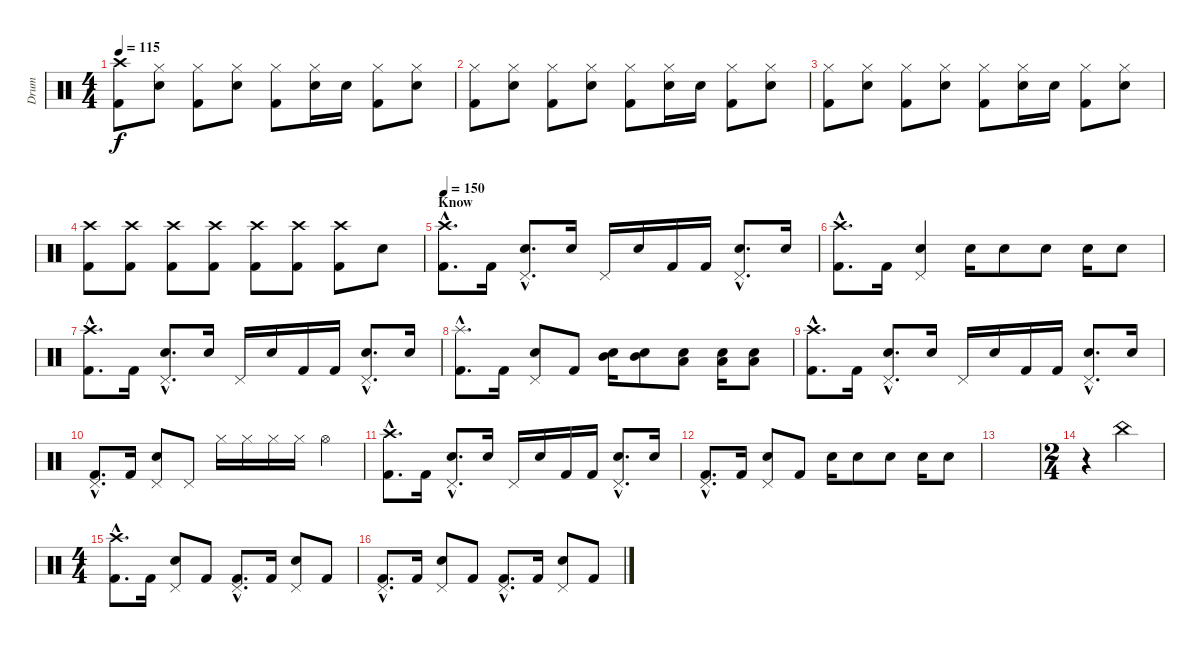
\track ("Drum" "Drum") {instrument percussion}
\staff {score}
\articulation defaults
\ts (4 4)
\tempo 115
\clef neutral
\ks c
("Crash high (hit)" "Kick (hit) 2").8{dy f} ("Hi-Hat (closed)" "Electric Snare (hit)").8 ("Hi-Hat (closed)" "Kick (hit) 2").8 ("Hi-Hat (closed)" "Electric Snare (hit)").8 ("Hi-Hat (closed)" "Kick (hit) 2").8 ("Hi-Hat (closed)" "Electric Snare (hit)").16 "Electric Snare (hit)".16 ("Hi-Hat (closed)" "Kick (hit) 2").8 ("Hi-Hat (closed)" "Electric Snare (hit)").8 |
("Hi-Hat (closed)" "Kick (hit) 2").8 ("Hi-Hat (closed)" "Electric Snare (hit)").8 ("Hi-Hat (closed)" "Kick (hit) 2").8 ("Hi-Hat (closed)" "Electric Snare (hit)").8 ("Hi-Hat (closed)" "Kick (hit) 2").8 ("Hi-Hat (closed)" "Electric Snare (hit)").16 "Electric Snare (hit)".16 ("Hi-Hat (closed)" "Kick (hit) 2").8 ("Hi-Hat (closed)" "Electric Snare (hit)").8 |
("Hi-Hat (closed)" "Kick (hit) 2").8 ("Hi-Hat (closed)" "Electric Snare (hit)").8 ("Hi-Hat (closed)" "Kick (hit) 2").8 ("Hi-Hat (closed)" "Electric Snare (hit)").8 ("Hi-Hat (closed)" "Kick (hit) 2").8 ("Hi-Hat (closed)" "Electric Snare (hit)").16 "Electric Snare (hit)".16 ("Hi-Hat (closed)" "Kick (hit) 2").8 ("Hi-Hat (closed)" "Electric Snare (hit)").8 |
("Crash high (hit)" "Kick (hit) 2").8 ("Crash high (hit)" "Kick (hit) 2").8 ("Crash high (hit)" "Kick (hit) 2").8 ("Crash high (hit)" "Kick (hit) 2").8 ("Crash high (hit)" "Kick (hit) 2").8 ("Crash high (hit)" "Kick (hit) 2").8 ("Crash high (hit)" "Kick (hit) 2").8 "Electric Snare (hit)".8 |
\section ("" "Know")
\tempo 150
("Kick (hit) 2"{hac} "Crash high (hit)"{hac}).8{d} "Kick (hit) 2".16 ("Electric Snare (hit)"{hac} "Pedal Hi-Hat (hit)"{hac}).8{d} "Electric Snare (hit)".16 "Pedal Hi-Hat (hit)".16 "Electric Snare (hit)".16 "Kick (hit) 2".16 "Kick (hit) 2".16 ("Electric Snare (hit)"{hac} "Pedal Hi-Hat (hit)"{hac}).8{d} "Electric Snare (hit)".16 |
("Kick (hit) 2"{hac} "Crash high (hit)"{hac}).8{d} "Kick (hit) 2".16 ("Electric Snare (hit)" "Pedal Hi-Hat (hit)").4 "Electric Snare (hit)".16 "Electric Snare (hit)".8 "Electric Snare (hit)".8 "Electric Snare (hit)".16 "Electric Snare (hit)".8 |
("Kick (hit) 2"{hac} "Crash high (hit)"{hac}).8{d} "Kick (hit) 2".16 ("Electric Snare (hit)"{hac} "Pedal Hi-Hat (hit)"{hac}).8{d} "Electric Snare (hit)".16 "Pedal Hi-Hat (hit)".16 "Electric Snare (hit)".16 "Kick (hit) 2".16 "Kick (hit) 2".16 ("Electric Snare (hit)"{hac} "Pedal Hi-Hat (hit)"{hac}).8{d} "Electric Snare (hit)".16 |
("Kick (hit) 2"{hac} "Splash (hit)"{hac}).8{d} "Kick (hit) 2".16 ("Electric Snare (hit)" "Pedal Hi-Hat (hit)").8 "Kick (hit) 2".8 ("Electric Snare (hit)" "Mid Tom (hit)").16 ("Electric Snare (hit)" "Mid Tom (hit)").8 ("Electric Snare (hit)" "Low Tom (hit)").8 ("Electric Snare (hit)" "Low Floor Tom (hit)").16 ("Electric Snare (hit)" "Low Floor Tom (hit)").8 |
("Kick (hit) 2"{hac} "Crash high (hit)"{hac}).8{d} "Kick (hit) 2".16 ("Electric Snare (hit)"{hac} "Pedal Hi-Hat (hit)"{hac}).8{d} "Electric Snare (hit)".16 "Pedal Hi-Hat (hit)".16 "Electric Snare (hit)".16 "Kick (hit) 2".16 "Kick (hit) 2".16 ("Electric Snare (hit)"{hac} "Pedal Hi-Hat (hit)"{hac}).8{d} "Electric Snare (hit)".16 |
("Kick (hit) 2"{hac} "Pedal Hi-Hat (hit)"{hac}).8{d} "Kick (hit) 2".16 ("Electric Snare (hit)" "Pedal Hi-Hat (hit)").8 "Pedal Hi-Hat (hit)".8 "Hi-Hat (closed)".16 "Hi-Hat (closed)".16 "Hi-Hat (closed)".16 "Hi-Hat (closed)".16 "Hi-Hat (open)".4 |
("Kick (hit) 2"{hac} "Crash high (hit)"{hac}).8{d} "Kick (hit) 2".16 ("Electric Snare (hit)"{hac} "Pedal Hi-Hat (hit)"{hac}).8{d} "Electric Snare (hit)".16 "Pedal Hi-Hat (hit)".16 "Electric Snare (hit)".16 "Kick (hit) 2".16 "Kick (hit) 2".16 ("Electric Snare (hit)"{hac} "Pedal Hi-Hat (hit)"{hac}).8{d} "Electric Snare (hit)".16 |
("Kick (hit) 2"{hac} "Pedal Hi-Hat (hit)"{hac}).8{d} "Kick (hit) 2".16 ("Electric Snare (hit)" "Pedal Hi-Hat (hit)").8 "Kick (hit) 2".8 "Electric Snare (hit)".16 "Electric Snare (hit)".8 "Electric Snare (hit)".8 "Electric Snare (hit)".16 "Electric Snare (hit)".8 |
|
\ts (2 4)
r.4 "China (hit)".4 |
\ts (4 4)
("Kick (hit) 2"{hac} "Crash high (hit)"{hac}).8{d} "Kick (hit) 2".16 ("Electric Snare (hit)" "Pedal Hi-Hat (hit)").8 "Kick (hit) 2".8 ("Kick (hit) 2"{hac} "Pedal Hi-Hat (hit)"{hac}).8{d} "Kick (hit) 2".16 ("Electric Snare (hit)" "Pedal Hi-Hat (hit)").8 "Kick (hit) 2".8 |
("Kick (hit) 2"{hac} "Pedal Hi-Hat (hit)"{hac}).8{d} "Kick (hit) 2".16 ("Electric Snare (hit)" "Pedal Hi-Hat (hit)").8 "Kick (hit) 2".8 ("Kick (hit) 2"{hac} "Pedal Hi-Hat (hit)"{hac}).8{d} "Kick (hit) 2".16 ("Electric Snare (hit)" "Pedal Hi-Hat (hit)").8 "Kick (hit) 2".8
